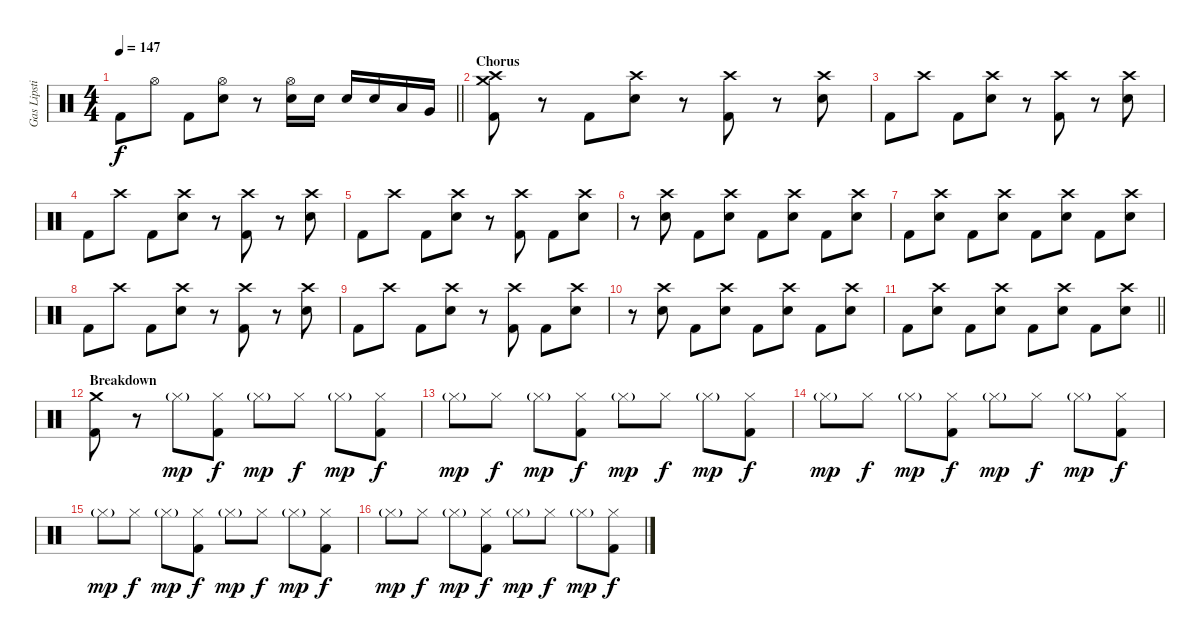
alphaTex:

\track ("Gas Lipstick (Drums)" "Gas Lipsti") {instrument percussion}
\staff {score}
\articulation defaults
\ts (4 4)
\tempo 147
\clef neutral
\barLineRight lightlight
\ks c "Kick (hit) 2".8{dy f} "Hi-Hat (open)".8 "Kick (hit) 2".8
("Hi-Hat (open)" "Snare (hit) 2").8 r.8 ("Hi-Hat (open)" "Snare (hit) 2").16 "Snare (hit) 2".16 "Snare (hit) 2".16 "Snare (hit) 2".16 "Low Tom (hit)".16 "Very Low Tom (hit)".16 |
\section ("" "Chorus")
("Crash medium (hit)" "Crash high (hit)" "Kick (hit) 2").8 r.8 "Kick (hit) 2".8 ("Crash high (hit)" "Snare (hit) 2").8 r.8 ("Crash high (hit)" "Kick (hit) 2").8 r.8 ("Crash high (hit)" "Snare (hit) 2").8 |
"Kick (hit) 2".8 "Crash high (hit)".8 "Kick (hit) 2".8 ("Crash high (hit)" "Snare (hit) 2").8 r.8 ("Crash high (hit)" "Kick (hit) 2").8 r.8 ("Crash high (hit)" "Snare (hit) 2").8 |
"Kick (hit) 2".8 "Crash high (hit)".8 "Kick (hit) 2".8 ("Crash high (hit)" "Snare (hit) 2").8 r.8 ("Crash high (hit)" "Kick (hit) 2").8 r.8 ("Crash high (hit)" "Snare (hit) 2").8 |
"Kick (hit) 2".8 "Crash high (hit)".8 "Kick (hit) 2".8 ("Crash high (hit)" "Snare (hit) 2").8 r.8 ("Crash high (hit)" "Kick (hit) 2").8 "Kick (hit) 2".8 ("Crash high (hit)" "Snare (hit) 2").8 |
r.8 ("Crash high (hit)" "Snare (hit) 2").8 "Kick (hit) 2".8 ("Crash high (hit)" "Snare (hit) 2").8 "Kick (hit) 2".8 ("Crash high (hit)" "Snare (hit) 2").8 "Kick (hit) 2".8 ("Crash high (hit)" "Snare (hit) 2").8 |
"Kick (hit) 2".8 ("Crash high (hit)" "Snare (hit) 2").8 "Kick (hit) 2".8 ("Crash high (hit)" "Snare (hit) 2").8 "Kick (hit) 2".8 ("Crash high (hit)" "Snare (hit) 2").8 "Kick (hit) 2".8 ("Crash high (hit)" "Snare (hit) 2").8 |
"Kick (hit) 2".8 "Crash high (hit)".8 "Kick (hit) 2".8 ("Crash high (hit)" "Snare (hit) 2").8 r.8 ("Crash high (hit)" "Kick (hit) 2").8 r.8 ("Crash high (hit)" "Snare (hit) 2").8 |
"Kick (hit) 2".8 "Crash high (hit)".8 "Kick (hit) 2".8 ("Crash high (hit)" "Snare (hit) 2").8 r.8 ("Crash high (hit)" "Kick (hit) 2").8 "Kick (hit) 2".8 ("Crash high (hit)" "Snare (hit) 2").8 |
r.8 ("Crash high (hit)" "Snare (hit) 2").8 "Kick (hit) 2".8 ("Crash high (hit)" "Snare (hit) 2").8 "Kick (hit) 2".8 ("Crash high (hit)" "Snare (hit) 2").8 "Kick (hit) 2".8 ("Crash high (hit)" "Snare (hit) 2").8 |
\barLineRight lightlight "Kick (hit) 2".8
("Crash high (hit)" "Snare (hit) 2").8 "Kick (hit) 2".8 ("Crash high (hit)" "Snare (hit) 2").8 "Kick (hit) 2".8 ("Crash high (hit)" "Snare (hit) 2").8 "Kick (hit) 2".8 ("Crash high (hit)" "Snare (hit) 2").8 |
\section ("" "Breakdown")
("Crash medium (hit)" "Kick (hit) 2").8 r.8 "Hi-Hat (closed)"{g}.8{dy mp} ("Hi-Hat (closed)" "Kick (hit) 2").8{dy f} "Hi-Hat (closed)"{g}.8{dy mp} "Hi-Hat (closed)".8{dy f} "Hi-Hat (closed)"{g}.8{dy mp} ("Hi-Hat (closed)" "Kick (hit) 2").8{dy f} |
"Hi-Hat (closed)"{g}.8{dy mp} "Hi-Hat (closed)".8{dy f} "Hi-Hat (closed)"{g}.8{dy mp} ("Hi-Hat (closed)" "Kick (hit) 2").8{dy f} "Hi-Hat (closed)"{g}.8{dy mp} "Hi-Hat (closed)".8{dy f} "Hi-Hat (closed)"{g}.8{dy mp} ("Hi-Hat (closed)" "Kick (hit) 2").8{dy f} |
"Hi-Hat (closed)"{g}.8{dy mp} "Hi-Hat (closed)".8{dy f} "Hi-Hat (closed)"{g}.8{dy mp} ("Hi-Hat (closed)" "Kick (hit) 2").8{dy f} "Hi-Hat (closed)"{g}.8{dy mp} "Hi-Hat (closed)".8{dy f} "Hi-Hat (closed)"{g}.8{dy mp} ("Hi-Hat (closed)" "Kick (hit) 2").8{dy f} |
"Hi-Hat (closed)"{g}.8{dy mp} "Hi-Hat (closed)".8{dy f} "Hi-Hat (closed)"{g}.8{dy mp} ("Hi-Hat (closed)" "Kick (hit) 2").8{dy f} "Hi-Hat (closed)"{g}.8{dy mp} "Hi-Hat (closed)".8{dy f} "Hi-Hat (closed)"{g}.8{dy mp} ("Hi-Hat (closed)" "Kick (hit) 2").8{dy f} |
"Hi-Hat (closed)"{g}.8{dy mp} "Hi-Hat (closed)".8{dy f} "Hi-Hat (closed)"{g}.8{dy mp} ("Hi-Hat (closed)" "Kick (hit) 2").8{dy f} "Hi-Hat (closed)"{g}.8{dy mp} "Hi-Hat (closed)".8{dy f} "Hi-Hat (closed)"{g}.8{dy mp} ("Hi-Hat (closed)" "Kick (hit) 2").8{dy f}
